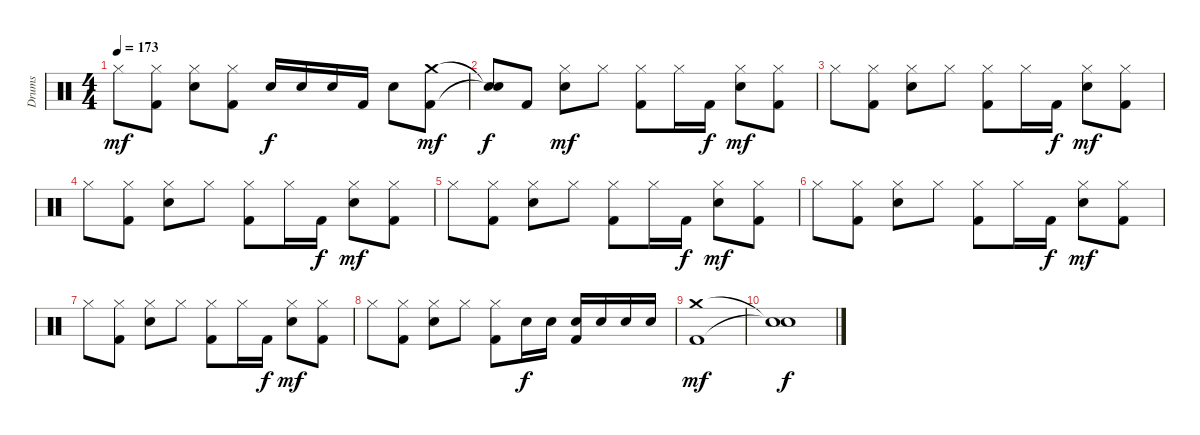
\track ("Drums" "Drums") {instrument percussion}
\staff {score}
\articulation defaults
\ts (4 4)
\tempo 173
\clef neutral
\ks c "Hi-Hat (closed)".8{dy mf}
("Hi-Hat (closed)" "Kick (hit) 2").8 ("Hi-Hat (closed)" "Electric Snare (hit)").8 ("Hi-Hat (closed)" "Kick (hit) 2").8 "Electric Snare (hit)".16{dy f} "Electric Snare (hit)".16 "Electric Snare (hit)".16 "Kick (hit) 2".16 "Electric Snare (hit)".8 ("Crash medium (hit)" "Kick (hit) 2").8{dy mf} |
("Snare (hit)"{t} "Snare (hit)"{t}).8{dy f} "Kick (hit) 2".8 ("Hi-Hat (closed)" "Electric Snare (hit)").8{dy mf} "Hi-Hat (closed)".8 ("Hi-Hat (closed)" "Kick (hit) 2").8 "Hi-Hat (closed)".16 "Kick (hit) 2".16{dy f} ("Hi-Hat (closed)" "Electric Snare (hit)").8{dy mf} ("Hi-Hat (closed)" "Kick (hit) 2").8 |
"Hi-Hat (closed)".8 ("Hi-Hat (closed)" "Kick (hit) 2").8 ("Hi-Hat (closed)" "Electric Snare (hit)").8 "Hi-Hat (closed)".8 ("Hi-Hat (closed)" "Kick (hit) 2").8 "Hi-Hat (closed)".16 "Kick (hit) 2".16{dy f} ("Hi-Hat (closed)" "Electric Snare (hit)").8{dy mf} ("Hi-Hat (closed)" "Kick (hit) 2").8 |
"Hi-Hat (closed)".8 ("Hi-Hat (closed)" "Kick (hit) 2").8 ("Hi-Hat (closed)" "Electric Snare (hit)").8 "Hi-Hat (closed)".8 ("Hi-Hat (closed)" "Kick (hit) 2").8 "Hi-Hat (closed)".16 "Kick (hit) 2".16{dy f} ("Hi-Hat (closed)" "Electric Snare (hit)").8{dy mf} ("Hi-Hat (closed)" "Kick (hit) 2").8 |
"Hi-Hat (closed)".8 ("Hi-Hat (closed)" "Kick (hit) 2").8 ("Hi-Hat (closed)" "Electric Snare (hit)").8 "Hi-Hat (closed)".8 ("Hi-Hat (closed)" "Kick (hit) 2").8 "Hi-Hat (closed)".16 "Kick (hit) 2".16{dy f} ("Hi-Hat (closed)" "Electric Snare (hit)").8{dy mf} ("Hi-Hat (closed)" "Kick (hit) 2").8 |
"Hi-Hat (closed)".8 ("Hi-Hat (closed)" "Kick (hit) 2").8 ("Hi-Hat (closed)" "Electric Snare (hit)").8 "Hi-Hat (closed)".8 ("Hi-Hat (closed)" "Kick (hit) 2").8 "Hi-Hat (closed)".16 "Kick (hit) 2".16{dy f} ("Hi-Hat (closed)" "Electric Snare (hit)").8{dy mf} ("Hi-Hat (closed)" "Kick (hit) 2").8 |
"Hi-Hat (closed)".8 ("Hi-Hat (closed)" "Kick (hit) 2").8 ("Hi-Hat (closed)" "Electric Snare (hit)").8 "Hi-Hat (closed)".8 ("Hi-Hat (closed)" "Kick (hit) 2").8 "Hi-Hat (closed)".16 "Kick (hit) 2".16{dy f} ("Hi-Hat (closed)" "Electric Snare (hit)").8{dy mf} ("Hi-Hat (closed)" "Kick (hit) 2").8 |
"Hi-Hat (closed)".8 ("Hi-Hat (closed)" "Kick (hit) 2").8 ("Hi-Hat (closed)" "Electric Snare (hit)").8 "Hi-Hat (closed)".8 ("Hi-Hat (closed)" "Kick (hit) 2").8 "Electric Snare (hit)".16{dy f} "Electric Snare (hit)".16 ("Electric Snare (hit)" "Kick (hit) 2").16 "Electric Snare (hit)".16 "Electric Snare (hit)".16 "Electric Snare (hit)".16 |
("Crash medium (hit)" "Kick (hit) 2").1{dy mf} |
("Snare (hit)"{t} "Snare (hit)"{t}).1{dy f}
